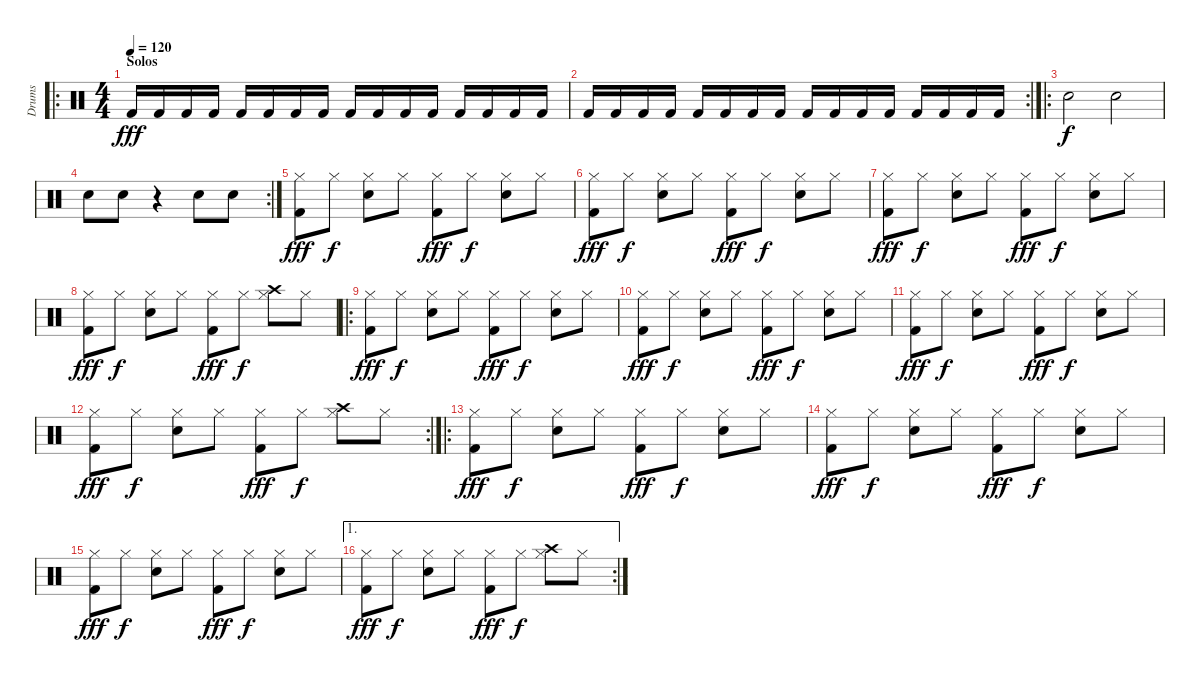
\track ("Drums" "Drums") {instrument percussion}
\staff {score}
\articulation defaults
\ro
\ts (4 4)
\section ("" "Solos")
\tempo 120
\clef neutral
\ks c "Kick (hit) 2".16{dy fff} "Kick (hit) 2".16 "Kick (hit) 2".16 "Kick (hit) 2".16 "Kick (hit) 2".16 "Kick (hit) 2".16 "Kick (hit) 2".16 "Kick (hit) 2".16 "Kick (hit) 2".16 "Kick (hit) 2".16 "Kick (hit) 2".16 "Kick (hit) 2".16 "Kick (hit) 2".16 "Kick (hit) 2".16 "Kick (hit) 2".16 "Kick (hit) 2".16
|
\rc 2 "Kick (hit) 2".16 "Kick (hit) 2".16 "Kick (hit) 2".16 "Kick (hit) 2".16 "Kick (hit) 2".16 "Kick (hit) 2".16 "Kick (hit) 2".16 "Kick (hit) 2".16 "Kick (hit) 2".16 "Kick (hit) 2".16 "Kick (hit) 2".16 "Kick (hit) 2".16 "Kick (hit) 2".16 "Kick (hit) 2".16 "Kick (hit) 2".16 "Kick (hit) 2".16
|
\ro "Snare (hit) 2".2{dy f} "Snare (hit) 2".2
|
\rc 2 "Snare (hit) 2".8 "Snare (hit) 2".8
r.4 "Snare (hit) 2".8 "Snare (hit) 2".8 |
("Kick (hit) 2" "Hi-Hat (closed)").8{dy fff} "Hi-Hat (closed)".8{dy f} ("Electric Snare (hit)" "Hi-Hat (closed)").8 "Hi-Hat (closed)".8 ("Kick (hit) 2" "Hi-Hat (closed)").8{dy fff} "Hi-Hat (closed)".8{dy f} ("Electric Snare (hit)" "Hi-Hat (closed)").8 "Hi-Hat (closed)".8 |
("Kick (hit) 2" "Hi-Hat (closed)").8{dy fff} "Hi-Hat (closed)".8{dy f} ("Electric Snare (hit)" "Hi-Hat (closed)").8 "Hi-Hat (closed)".8 ("Kick (hit) 2" "Hi-Hat (closed)").8{dy fff} "Hi-Hat (closed)".8{dy f} ("Electric Snare (hit)" "Hi-Hat (closed)").8 "Hi-Hat (closed)".8 |
("Kick (hit) 2" "Hi-Hat (closed)").8{dy fff} "Hi-Hat (closed)".8{dy f} ("Electric Snare (hit)" "Hi-Hat (closed)").8 "Hi-Hat (closed)".8 ("Kick (hit) 2" "Hi-Hat (closed)").8{dy fff} "Hi-Hat (closed)".8{dy f} ("Electric Snare (hit)" "Hi-Hat (closed)").8 "Hi-Hat (closed)".8 |
("Kick (hit) 2" "Hi-Hat (closed)").8{dy fff} "Hi-Hat (closed)".8{dy f} ("Electric Snare (hit)" "Hi-Hat (closed)").8 "Hi-Hat (closed)".8 ("Kick (hit) 2" "Hi-Hat (closed)").8{dy fff} "Hi-Hat (closed)".8{dy f} ("Crash high (hit)" "Hi-Hat (closed)").8 "Hi-Hat (closed)".8 |
\ro
("Kick (hit) 2" "Hi-Hat (closed)").8{dy fff} "Hi-Hat (closed)".8{dy f} ("Electric Snare (hit)" "Hi-Hat (closed)").8 "Hi-Hat (closed)".8 ("Kick (hit) 2" "Hi-Hat (closed)").8{dy fff} "Hi-Hat (closed)".8{dy f} ("Electric Snare (hit)" "Hi-Hat (closed)").8 "Hi-Hat (closed)".8 |
("Kick (hit) 2" "Hi-Hat (closed)").8{dy fff} "Hi-Hat (closed)".8{dy f} ("Electric Snare (hit)" "Hi-Hat (closed)").8 "Hi-Hat (closed)".8 ("Kick (hit) 2" "Hi-Hat (closed)").8{dy fff} "Hi-Hat (closed)".8{dy f} ("Electric Snare (hit)" "Hi-Hat (closed)").8 "Hi-Hat (closed)".8 |
("Kick (hit) 2" "Hi-Hat (closed)").8{dy fff} "Hi-Hat (closed)".8{dy f} ("Electric Snare (hit)" "Hi-Hat (closed)").8 "Hi-Hat (closed)".8 ("Kick (hit) 2" "Hi-Hat (closed)").8{dy fff} "Hi-Hat (closed)".8{dy f} ("Electric Snare (hit)" "Hi-Hat (closed)").8 "Hi-Hat (closed)".8 |
\rc 2
("Kick (hit) 2" "Hi-Hat (closed)").8{dy fff} "Hi-Hat (closed)".8{dy f} ("Electric Snare (hit)" "Hi-Hat (closed)").8 "Hi-Hat (closed)".8 ("Kick (hit) 2" "Hi-Hat (closed)").8{dy fff} "Hi-Hat (closed)".8{dy f} ("Crash high (hit)" "Hi-Hat (closed)").8 "Hi-Hat (closed)".8 |
\ro
("Kick (hit) 2" "Hi-Hat (closed)").8{dy fff} "Hi-Hat (closed)".8{dy f} ("Electric Snare (hit)" "Hi-Hat (closed)").8 "Hi-Hat (closed)".8 ("Kick (hit) 2" "Hi-Hat (closed)").8{dy fff} "Hi-Hat (closed)".8{dy f} ("Electric Snare (hit)" "Hi-Hat (closed)").8 "Hi-Hat (closed)".8 |
("Kick (hit) 2" "Hi-Hat (closed)").8{dy fff} "Hi-Hat (closed)".8{dy f} ("Electric Snare (hit)" "Hi-Hat (closed)").8 "Hi-Hat (closed)".8 ("Kick (hit) 2" "Hi-Hat (closed)").8{dy fff} "Hi-Hat (closed)".8{dy f} ("Electric Snare (hit)" "Hi-Hat (closed)").8 "Hi-Hat (closed)".8 |
("Kick (hit) 2" "Hi-Hat (closed)").8{dy fff} "Hi-Hat (closed)".8{dy f} ("Electric Snare (hit)" "Hi-Hat (closed)").8 "Hi-Hat (closed)".8 ("Kick (hit) 2" "Hi-Hat (closed)").8{dy fff} "Hi-Hat (closed)".8{dy f} ("Electric Snare (hit)" "Hi-Hat (closed)").8 "Hi-Hat (closed)".8 |
\ae 1
\rc 2
("Kick (hit) 2" "Hi-Hat (closed)").8{dy fff} "Hi-Hat (closed)".8{dy f} ("Electric Snare (hit)" "Hi-Hat (closed)").8 "Hi-Hat (closed)".8 ("Kick (hit) 2" "Hi-Hat (closed)").8{dy fff} "Hi-Hat (closed)".8{dy f} ("Crash high (hit)" "Hi-Hat (closed)").8 "Hi-Hat (closed)".8
